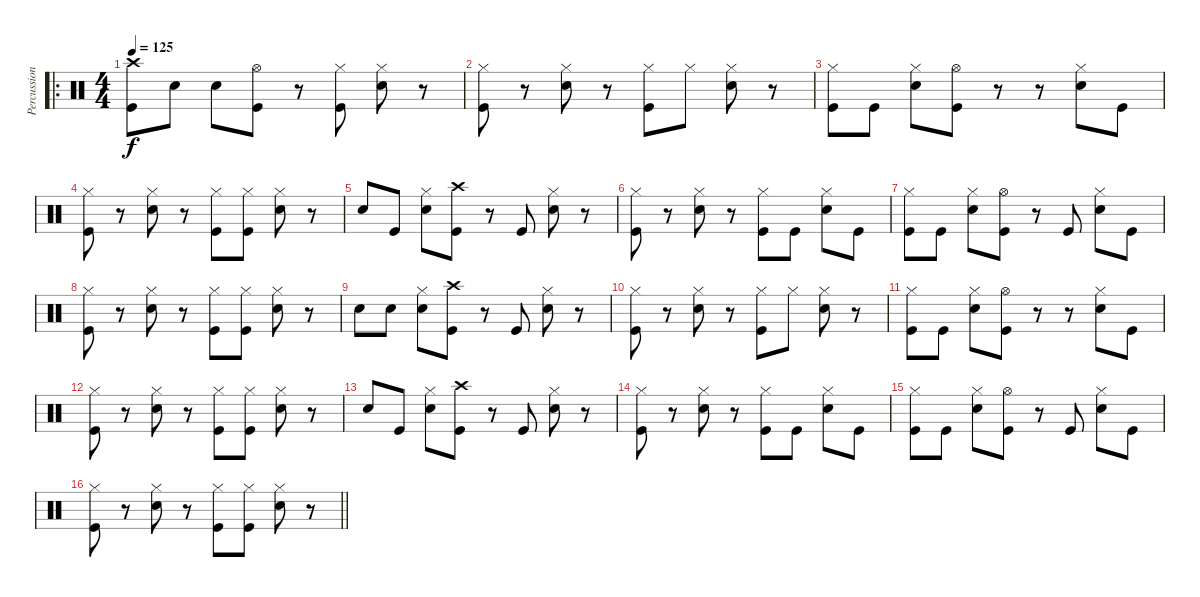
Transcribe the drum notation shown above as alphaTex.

\track ("Percussion" "Percussion") {instrument percussion bank 177}
\staff {score}
\articulation defaults
\ro
\ts (4 4)
\tempo 125
\clef neutral
\ks c
("Crash high (hit)" "Kick (hit)").8{dy f} "Snare (hit) 2".8 "Snare (hit) 2".8 ("Hi-Hat (open)" "Kick (hit)").8 r.8 ("Hi-Hat (closed)" "Kick (hit)").8 ("Hi-Hat (closed)" "Snare (hit) 2").8 r.8 |
("Hi-Hat (closed)" "Kick (hit)").8 r.8 ("Hi-Hat (closed)" "Snare (hit) 2").8 r.8 ("Hi-Hat (closed)" "Kick (hit)").8 "Hi-Hat (closed)".8 ("Hi-Hat (closed)" "Snare (hit) 2").8 r.8 |
("Hi-Hat (closed)" "Kick (hit)").8 "Kick (hit)".8 ("Hi-Hat (closed)" "Snare (hit) 2").8 ("Hi-Hat (open)" "Kick (hit)").8 r.8 r.8 ("Hi-Hat (closed)" "Snare (hit) 2").8 "Kick (hit)".8 |
("Hi-Hat (closed)" "Kick (hit)").8 r.8 ("Hi-Hat (closed)" "Snare (hit) 2").8 r.8 ("Hi-Hat (closed)" "Kick (hit)").8 ("Hi-Hat (closed)" "Kick (hit)").8 ("Hi-Hat (closed)" "Snare (hit) 2").8 r.8 |
"Snare (hit) 2".8 "Kick (hit)".8 ("Hi-Hat (closed)" "Snare (hit) 2").8 ("Crash high (hit)" "Kick (hit)").8 r.8 "Kick (hit)".8 ("Hi-Hat (closed)" "Snare (hit) 2").8 r.8 |
("Hi-Hat (closed)" "Kick (hit)").8 r.8 ("Hi-Hat (closed)" "Snare (hit) 2").8 r.8 ("Hi-Hat (closed)" "Kick (hit)").8 "Kick (hit)".8 ("Hi-Hat (closed)" "Snare (hit) 2").8 "Kick (hit)".8 |
("Hi-Hat (closed)" "Kick (hit)").8 "Kick (hit)".8 ("Hi-Hat (closed)" "Snare (hit) 2").8 ("Hi-Hat (open)" "Kick (hit)").8 r.8 "Kick (hit)".8 ("Hi-Hat (closed)" "Snare (hit) 2").8 "Kick (hit)".8 |
("Hi-Hat (closed)" "Kick (hit)").8 r.8 ("Hi-Hat (closed)" "Snare (hit) 2").8 r.8 ("Hi-Hat (closed)" "Kick (hit)").8 ("Hi-Hat (closed)" "Kick (hit)").8 ("Hi-Hat (closed)" "Snare (hit) 2").8 r.8 |
"Snare (hit) 2".8 "Snare (hit) 2".8 ("Hi-Hat (closed)" "Snare (hit) 2").8 ("Crash high (hit)" "Kick (hit)").8 r.8 "Kick (hit)".8 ("Hi-Hat (closed)" "Snare (hit) 2").8 r.8 |
("Hi-Hat (closed)" "Kick (hit)").8 r.8 ("Hi-Hat (closed)" "Snare (hit) 2").8 r.8 ("Hi-Hat (closed)" "Kick (hit)").8 "Hi-Hat (closed)".8 ("Hi-Hat (closed)" "Snare (hit) 2").8 r.8 |
("Hi-Hat (closed)" "Kick (hit)").8 "Kick (hit)".8 ("Hi-Hat (closed)" "Snare (hit) 2").8 ("Hi-Hat (open)" "Kick (hit)").8 r.8 r.8 ("Hi-Hat (closed)" "Snare (hit) 2").8 "Kick (hit)".8 |
("Hi-Hat (closed)" "Kick (hit)").8 r.8 ("Hi-Hat (closed)" "Snare (hit) 2").8 r.8 ("Hi-Hat (closed)" "Kick (hit)").8 ("Hi-Hat (closed)" "Kick (hit)").8 ("Hi-Hat (closed)" "Snare (hit) 2").8 r.8 |
"Snare (hit) 2".8 "Kick (hit)".8 ("Hi-Hat (closed)" "Snare (hit) 2").8 ("Crash high (hit)" "Kick (hit)").8 r.8 "Kick (hit)".8 ("Hi-Hat (closed)" "Snare (hit) 2").8 r.8 |
("Hi-Hat (closed)" "Kick (hit)").8 r.8 ("Hi-Hat (closed)" "Snare (hit) 2").8 r.8 ("Hi-Hat (closed)" "Kick (hit)").8 "Kick (hit)".8 ("Hi-Hat (closed)" "Snare (hit) 2").8 "Kick (hit)".8 |
("Hi-Hat (closed)" "Kick (hit)").8 "Kick (hit)".8 ("Hi-Hat (closed)" "Snare (hit) 2").8 ("Hi-Hat (open)" "Kick (hit)").8 r.8 "Kick (hit)".8 ("Hi-Hat (closed)" "Snare (hit) 2").8 "Kick (hit)".8 |
\barLineRight lightlight
("Hi-Hat (closed)" "Kick (hit)").8 r.8 ("Hi-Hat (closed)" "Snare (hit) 2").8 r.8 ("Hi-Hat (closed)" "Kick (hit)").8 ("Hi-Hat (closed)" "Kick (hit)").8 ("Hi-Hat (closed)" "Snare (hit) 2").8 r.8
